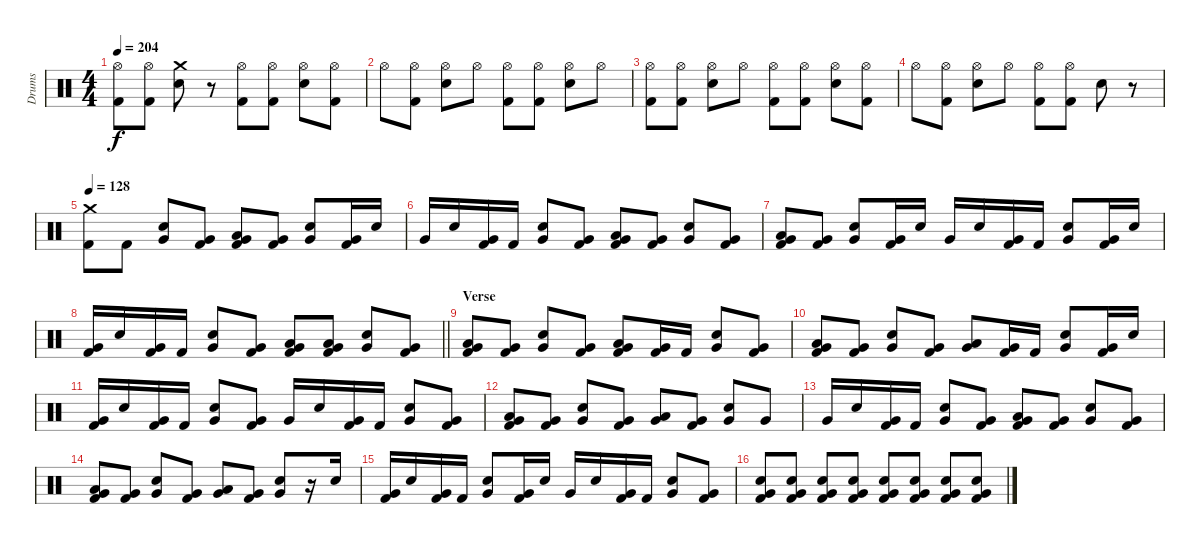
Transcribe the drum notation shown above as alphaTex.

\track ("Drums" "Drums") {instrument percussion}
\staff {score}
\articulation defaults
\ts (4 4)
\tempo 204
\clef neutral
\ks c
("Hi-Hat (open)" "Kick (hit) 2").8{dy f} ("Hi-Hat (open)" "Kick (hit) 2").8 ("Crash medium (hit)" "Snare (hit) 2").8 r.8 ("Hi-Hat (open)" "Kick (hit) 2").8 ("Hi-Hat (open)" "Kick (hit) 2").8 ("Hi-Hat (open)" "Snare (hit) 2").8 ("Hi-Hat (open)" "Kick (hit) 2").8 |
"Hi-Hat (open)".8 ("Hi-Hat (open)" "Kick (hit) 2").8 ("Hi-Hat (open)" "Snare (hit) 2").8 "Hi-Hat (open)".8 ("Hi-Hat (open)" "Kick (hit) 2").8 ("Hi-Hat (open)" "Kick (hit) 2").8 ("Hi-Hat (open)" "Snare (hit) 2").8 "Hi-Hat (open)".8 |
("Hi-Hat (open)" "Kick (hit) 2").8 ("Hi-Hat (open)" "Kick (hit) 2").8 ("Hi-Hat (open)" "Snare (hit) 2").8 "Hi-Hat (open)".8 ("Hi-Hat (open)" "Kick (hit) 2").8 ("Hi-Hat (open)" "Kick (hit) 2").8 ("Hi-Hat (open)" "Snare (hit) 2").8 ("Hi-Hat (open)" "Kick (hit) 2").8 |
"Hi-Hat (open)".8 ("Hi-Hat (open)" "Kick (hit) 2").8 ("Hi-Hat (open)" "Snare (hit) 2").8 "Hi-Hat (open)".8 ("Hi-Hat (open)" "Kick (hit) 2").8 ("Hi-Hat (open)" "Kick (hit) 2").8 "Snare (hit) 2".8 r.8 |
\tempo 128
("Crash medium (hit)" "Kick (hit) 2").8 "Kick (hit) 2".8 ("Snare (hit) 2" "Very Low Tom (hit)").8 ("Kick (hit) 2" "Very Low Tom (hit)").8 ("Kick (hit) 2" "Very Low Tom (hit)" "Low Tom (hit)").8 ("Kick (hit) 2" "Very Low Tom (hit)").8 ("Snare (hit) 2" "Very Low Tom (hit)").8 ("Kick (hit) 2" "Very Low Tom (hit)").16 "Snare (hit) 2".16 |
"Very Low Tom (hit)".16 "Snare (hit) 2".16 ("Kick (hit) 2" "Very Low Tom (hit)").16 "Kick (hit) 2".16 ("Snare (hit) 2" "Very Low Tom (hit)").8 ("Kick (hit) 2" "Very Low Tom (hit)").8 ("Kick (hit) 2" "Very Low Tom (hit)" "Low Tom (hit)").8 ("Kick (hit) 2" "Very Low Tom (hit)").8 ("Snare (hit) 2" "Very Low Tom (hit)").8 ("Kick (hit) 2" "Very Low Tom (hit)").8 |
("Kick (hit) 2" "Very Low Tom (hit)" "Low Tom (hit)").8 ("Kick (hit) 2" "Very Low Tom (hit)").8 ("Snare (hit) 2" "Very Low Tom (hit)").8 ("Kick (hit) 2" "Very Low Tom (hit)").16 "Snare (hit) 2".16 "Very Low Tom (hit)".16 "Snare (hit) 2".16 ("Kick (hit) 2" "Very Low Tom (hit)").16 "Kick (hit) 2".16 ("Snare (hit) 2" "Very Low Tom (hit)").8 ("Kick (hit) 2" "Very Low Tom (hit)").16 "Snare (hit) 2".16 |
\barLineRight lightlight
("Kick (hit) 2" "Very Low Tom (hit)").16 "Snare (hit) 2".16 ("Kick (hit) 2" "Very Low Tom (hit)").16 "Kick (hit) 2".16 ("Snare (hit) 2" "Very Low Tom (hit)").8 ("Kick (hit) 2" "Very Low Tom (hit)").8 ("Kick (hit) 2" "Very Low Tom (hit)" "Low Tom (hit)").8 ("Kick (hit) 2" "Very Low Tom (hit)" "Low Tom (hit)").8 ("Snare (hit) 2" "Very Low Tom (hit)").8 ("Kick (hit) 2" "Very Low Tom (hit)").8 |
\section ("" "Verse")
("Kick (hit) 2" "Very Low Tom (hit)" "Low Tom (hit)").8 ("Kick (hit) 2" "Very Low Tom (hit)").8 ("Snare (hit) 2" "Very Low Tom (hit)").8 ("Kick (hit) 2" "Very Low Tom (hit)").8 ("Kick (hit) 2" "Very Low Tom (hit)" "Low Tom (hit)").8 ("Kick (hit) 2" "Very Low Tom (hit)").16 "Kick (hit) 2".16 ("Snare (hit) 2" "Very Low Tom (hit)").8 ("Kick (hit) 2" "Very Low Tom (hit)").8 |
("Kick (hit) 2" "Very Low Tom (hit)" "Low Tom (hit)").8 ("Kick (hit) 2" "Very Low Tom (hit)").8 ("Snare (hit) 2" "Very Low Tom (hit)").8 ("Kick (hit) 2" "Very Low Tom (hit)").8 ("Very Low Tom (hit)" "Low Tom (hit)").8 ("Kick (hit) 2" "Very Low Tom (hit)").16 "Kick (hit) 2".16 ("Snare (hit) 2" "Very Low Tom (hit)").8 ("Kick (hit) 2" "Very Low Tom (hit)").16 "Snare (hit) 2".16 |
("Kick (hit) 2" "Very Low Tom (hit)").16 "Snare (hit) 2".16 ("Kick (hit) 2" "Very Low Tom (hit)").16 "Kick (hit) 2".16 ("Snare (hit) 2" "Very Low Tom (hit)").8 ("Kick (hit) 2" "Very Low Tom (hit)").8 "Very Low Tom (hit)".16 "Snare (hit) 2".16 ("Kick (hit) 2" "Very Low Tom (hit)").16 "Kick (hit) 2".16 ("Snare (hit) 2" "Very Low Tom (hit)").8 ("Kick (hit) 2" "Very Low Tom (hit)").8 |
("Kick (hit) 2" "Very Low Tom (hit)" "Low Tom (hit)").8 ("Kick (hit) 2" "Very Low Tom (hit)").8 ("Snare (hit) 2" "Very Low Tom (hit)").8 ("Kick (hit) 2" "Very Low Tom (hit)").8 ("Very Low Tom (hit)" "Low Tom (hit)").8 ("Kick (hit) 2" "Very Low Tom (hit)").8 ("Snare (hit) 2" "Very Low Tom (hit)").8 "Very Low Tom (hit)".8 |
"Very Low Tom (hit)".16 "Snare (hit) 2".16 ("Kick (hit) 2" "Very Low Tom (hit)").16 "Kick (hit) 2".16 ("Snare (hit) 2" "Very Low Tom (hit)").8 ("Kick (hit) 2" "Very Low Tom (hit)").8 ("Kick (hit) 2" "Very Low Tom (hit)" "Low Tom (hit)").8 ("Kick (hit) 2" "Very Low Tom (hit)").8 ("Snare (hit) 2" "Very Low Tom (hit)").8 ("Kick (hit) 2" "Very Low Tom (hit)").8 |
("Kick (hit) 2" "Very Low Tom (hit)" "Low Tom (hit)").8 ("Kick (hit) 2" "Very Low Tom (hit)").8 ("Snare (hit) 2" "Very Low Tom (hit)").8 ("Kick (hit) 2" "Very Low Tom (hit)").8 ("Very Low Tom (hit)" "Low Tom (hit)").8 ("Kick (hit) 2" "Very Low Tom (hit)").8 ("Snare (hit) 2" "Very Low Tom (hit)").8 r.16 "Snare (hit) 2".16 |
("Kick (hit) 2" "Very Low Tom (hit)").16 "Snare (hit) 2".16 ("Kick (hit) 2" "Very Low Tom (hit)").16 "Kick (hit) 2".16 ("Snare (hit) 2" "Very Low Tom (hit)").8 ("Kick (hit) 2" "Very Low Tom (hit)").16 "Snare (hit) 2".16 "Very Low Tom (hit)".16 "Snare (hit) 2".16 ("Kick (hit) 2" "Very Low Tom (hit)").16 "Kick (hit) 2".16 ("Snare (hit) 2" "Very Low Tom (hit)").8 ("Kick (hit) 2" "Very Low Tom (hit)").8 |
("Snare (hit) 2" "Kick (hit) 2" "Very Low Tom (hit)").8 ("Snare (hit) 2" "Kick (hit) 2" "Very Low Tom (hit)").8 ("Snare (hit) 2" "Kick (hit) 2" "Very Low Tom (hit)").8 ("Snare (hit) 2" "Kick (hit) 2" "Very Low Tom (hit)").8 ("Snare (hit) 2" "Kick (hit) 2" "Very Low Tom (hit)").8 ("Snare (hit) 2" "Kick (hit) 2" "Very Low Tom (hit)").8 ("Snare (hit) 2" "Kick (hit) 2" "Very Low Tom (hit)").8 ("Snare (hit) 2" "Kick (hit) 2" "Very Low Tom (hit)").8
